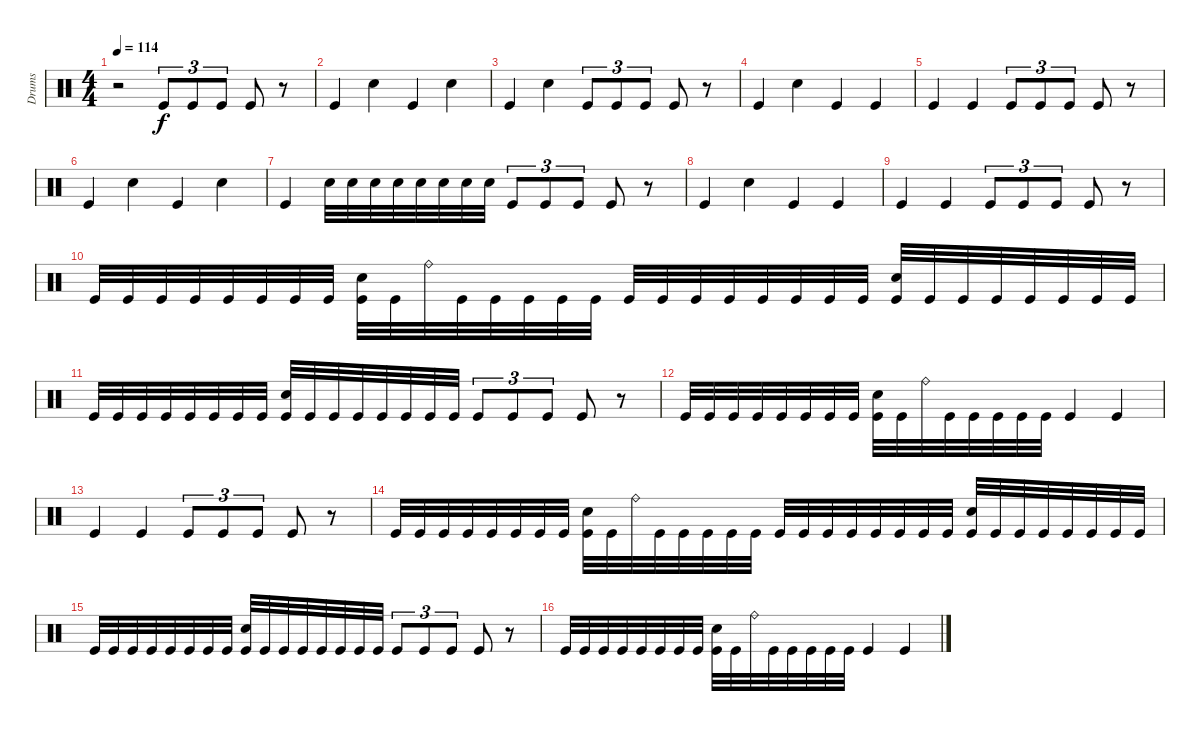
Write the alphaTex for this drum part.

\track ("Drums" "Drums") {instrument percussion}
\staff {score}
\articulation defaults
\ts (4 4)
\tempo 114
\clef neutral
\ks c
r.2{dy f} "Kick (hit)".8{tu (3 2)} "Kick (hit)".8{tu (3 2)} "Kick (hit)".8{tu (3 2)} "Kick (hit)".8 r.8 |
"Kick (hit)".4 "Snare (hit) 2".4 "Kick (hit)".4 "Snare (hit) 2".4 |
"Kick (hit)".4 "Snare (hit) 2".4 "Kick (hit)".8{tu (3 2)} "Kick (hit)".8{tu (3 2)} "Kick (hit)".8{tu (3 2)} "Kick (hit)".8 r.8 |
"Kick (hit)".4 "Snare (hit) 2".4 "Kick (hit)".4 "Kick (hit)".4 |
"Kick (hit)".4 "Kick (hit)".4 "Kick (hit)".8{tu (3 2)} "Kick (hit)".8{tu (3 2)} "Kick (hit)".8{tu (3 2)} "Kick (hit)".8 r.8 |
"Kick (hit)".4 "Snare (hit) 2".4 "Kick (hit)".4 "Snare (hit) 2".4 |
"Kick (hit)".4 "Snare (hit) 2".32 "Snare (hit) 2".32 "Snare (hit) 2".32 "Snare (hit) 2".32 "Snare (hit) 2".32 "Snare (hit) 2".32 "Snare (hit) 2".32 "Snare (hit) 2".32 "Kick (hit)".8{tu (3 2)} "Kick (hit)".8{tu (3 2)} "Kick (hit)".8{tu (3 2)} "Kick (hit)".8 r.8 |
"Kick (hit)".4 "Snare (hit) 2".4 "Kick (hit)".4 "Kick (hit)".4 |
"Kick (hit)".4 "Kick (hit)".4 "Kick (hit)".8{tu (3 2)} "Kick (hit)".8{tu (3 2)} "Kick (hit)".8{tu (3 2)} "Kick (hit)".8 r.8 |
"Kick (hit)".32 "Kick (hit)".32 "Kick (hit)".32 "Kick (hit)".32 "Kick (hit)".32 "Kick (hit)".32 "Kick (hit)".32 "Kick (hit)".32 ("Snare (hit) 2" "Kick (hit)").32 "Kick (hit)".32 "Ride (bell)".32 "Kick (hit)".32 "Kick (hit)".32 "Kick (hit)".32 "Kick (hit)".32 "Kick (hit)".32 "Kick (hit)".32 "Kick (hit)".32 "Kick (hit)".32 "Kick (hit)".32 "Kick (hit)".32 "Kick (hit)".32 "Kick (hit)".32 "Kick (hit)".32 ("Snare (hit) 2" "Kick (hit)").32 "Kick (hit)".32 "Kick (hit)".32 "Kick (hit)".32 "Kick (hit)".32 "Kick (hit)".32 "Kick (hit)".32 "Kick (hit)".32 |
"Kick (hit)".32 "Kick (hit)".32 "Kick (hit)".32 "Kick (hit)".32 "Kick (hit)".32 "Kick (hit)".32 "Kick (hit)".32 "Kick (hit)".32 ("Snare (hit) 2" "Kick (hit)").32 "Kick (hit)".32 "Kick (hit)".32 "Kick (hit)".32 "Kick (hit)".32 "Kick (hit)".32 "Kick (hit)".32 "Kick (hit)".32 "Kick (hit)".8{tu (3 2)} "Kick (hit)".8{tu (3 2)} "Kick (hit)".8{tu (3 2)} "Kick (hit)".8 r.8 |
"Kick (hit)".32 "Kick (hit)".32 "Kick (hit)".32 "Kick (hit)".32 "Kick (hit)".32 "Kick (hit)".32 "Kick (hit)".32 "Kick (hit)".32 ("Snare (hit) 2" "Kick (hit)").32 "Kick (hit)".32 "Ride (bell)".32 "Kick (hit)".32 "Kick (hit)".32 "Kick (hit)".32 "Kick (hit)".32 "Kick (hit)".32 "Kick (hit)".4 "Kick (hit)".4 |
"Kick (hit)".4 "Kick (hit)".4 "Kick (hit)".8{tu (3 2)} "Kick (hit)".8{tu (3 2)} "Kick (hit)".8{tu (3 2)} "Kick (hit)".8 r.8 |
"Kick (hit)".32 "Kick (hit)".32 "Kick (hit)".32 "Kick (hit)".32 "Kick (hit)".32 "Kick (hit)".32 "Kick (hit)".32 "Kick (hit)".32 ("Snare (hit) 2" "Kick (hit)").32 "Kick (hit)".32 "Ride (bell)".32 "Kick (hit)".32 "Kick (hit)".32 "Kick (hit)".32 "Kick (hit)".32 "Kick (hit)".32 "Kick (hit)".32 "Kick (hit)".32 "Kick (hit)".32 "Kick (hit)".32 "Kick (hit)".32 "Kick (hit)".32 "Kick (hit)".32 "Kick (hit)".32 ("Snare (hit) 2" "Kick (hit)").32 "Kick (hit)".32 "Kick (hit)".32 "Kick (hit)".32 "Kick (hit)".32 "Kick (hit)".32 "Kick (hit)".32 "Kick (hit)".32 |
"Kick (hit)".32 "Kick (hit)".32 "Kick (hit)".32 "Kick (hit)".32 "Kick (hit)".32 "Kick (hit)".32 "Kick (hit)".32 "Kick (hit)".32 ("Snare (hit) 2" "Kick (hit)").32 "Kick (hit)".32 "Kick (hit)".32 "Kick (hit)".32 "Kick (hit)".32 "Kick (hit)".32 "Kick (hit)".32 "Kick (hit)".32 "Kick (hit)".8{tu (3 2)} "Kick (hit)".8{tu (3 2)} "Kick (hit)".8{tu (3 2)} "Kick (hit)".8 r.8 |
"Kick (hit)".32 "Kick (hit)".32 "Kick (hit)".32 "Kick (hit)".32 "Kick (hit)".32 "Kick (hit)".32 "Kick (hit)".32 "Kick (hit)".32 ("Snare (hit) 2" "Kick (hit)").32 "Kick (hit)".32 "Ride (bell)".32 "Kick (hit)".32 "Kick (hit)".32 "Kick (hit)".32 "Kick (hit)".32 "Kick (hit)".32 "Kick (hit)".4 "Kick (hit)".4
